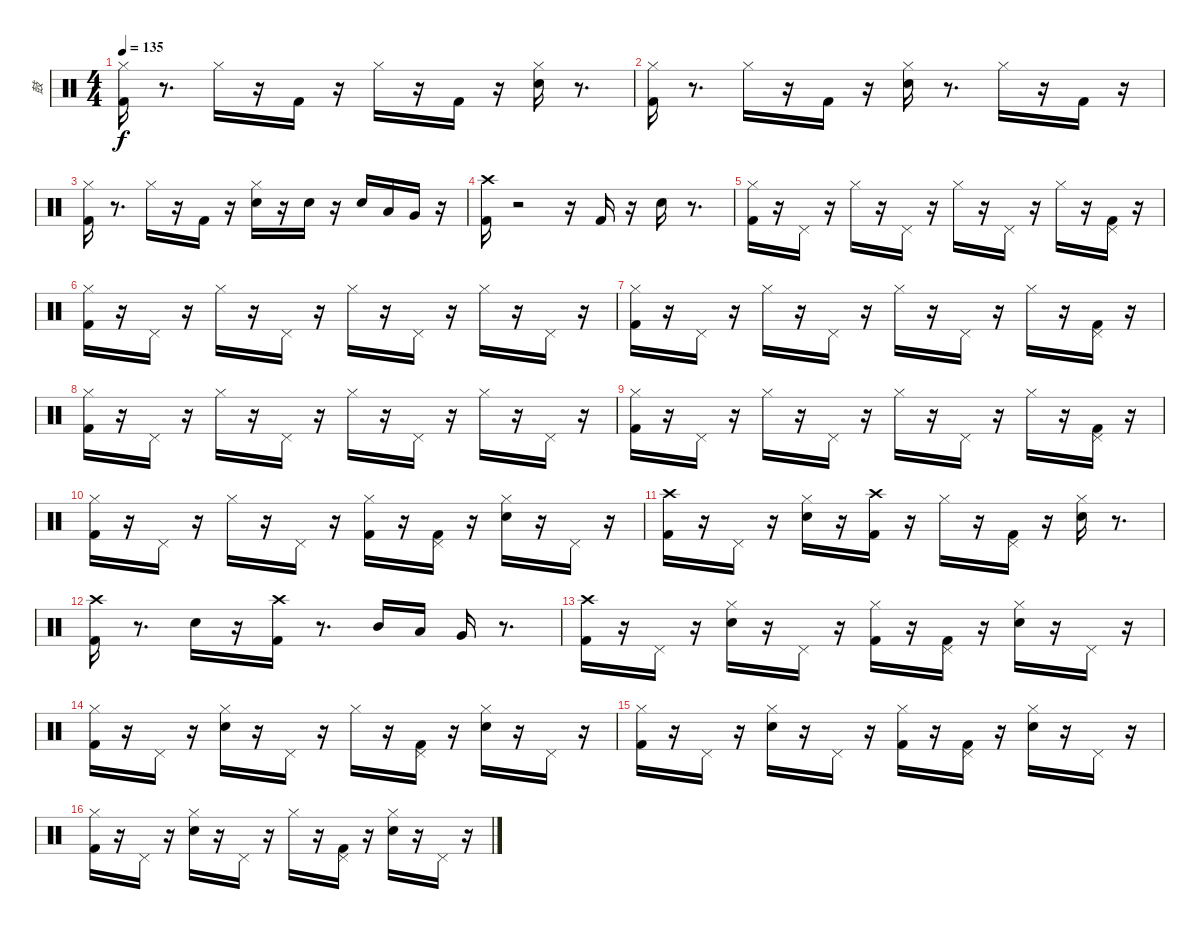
\track ("鼓" "鼓") {instrument percussion}
\staff {score}
\articulation defaults
\ts (4 4)
\tempo 135
\clef neutral
\ks c
("Hi-Hat (closed)" "Kick (hit) 2").16{dy f} r.8{d} "Hi-Hat (closed)".16 r.16 "Kick (hit) 2".16 r.16 "Hi-Hat (closed)".16 r.16 "Kick (hit) 2".16 r.16 ("Hi-Hat (closed)" "Electric Snare (hit)").16 r.8{d} |
("Kick (hit) 2" "Hi-Hat (closed)").16 r.8{d} "Hi-Hat (closed)".16 r.16 "Kick (hit) 2".16 r.16 ("Electric Snare (hit)" "Hi-Hat (closed)").16 r.8{d} "Hi-Hat (closed)".16 r.16 "Kick (hit) 2".16 r.16 |
("Hi-Hat (closed)" "Kick (hit) 2").16 r.8{d} "Hi-Hat (closed)".16 r.16 "Kick (hit) 2".16 r.16 ("Hi-Hat (closed)" "Electric Snare (hit)").16 r.16 "Electric Snare (hit)".16 r.16 "Electric Snare (hit)".16 "Low Tom (hit)".16 "Very Low Tom (hit)".16 r.16 |
("Crash high (hit)" "Kick (hit) 2").16 r.2 r.16 "Kick (hit) 2".16 r.16 "Electric Snare (hit)".16 r.8{d} |
("Kick (hit) 2" "Hi-Hat (closed)").16 r.16 "Pedal Hi-Hat (hit)".16 r.16 "Hi-Hat (closed)".16 r.16 "Pedal Hi-Hat (hit)".16 r.16 "Hi-Hat (closed)".16 r.16 "Pedal Hi-Hat (hit)".16 r.16 "Hi-Hat (closed)".16 r.16 ("Kick (hit) 2" "Pedal Hi-Hat (hit)").16 r.16 |
("Hi-Hat (closed)" "Kick (hit) 2").16 r.16 "Pedal Hi-Hat (hit)".16 r.16 "Hi-Hat (closed)".16 r.16 "Pedal Hi-Hat (hit)".16 r.16 "Hi-Hat (closed)".16 r.16 "Pedal Hi-Hat (hit)".16 r.16 "Hi-Hat (closed)".16 r.16 "Pedal Hi-Hat (hit)".16 r.16 |
("Hi-Hat (closed)" "Kick (hit) 2").16 r.16 "Pedal Hi-Hat (hit)".16 r.16 "Hi-Hat (closed)".16 r.16 "Pedal Hi-Hat (hit)".16 r.16 "Hi-Hat (closed)".16 r.16 "Pedal Hi-Hat (hit)".16 r.16 "Hi-Hat (closed)".16 r.16 ("Kick (hit) 2" "Pedal Hi-Hat (hit)").16 r.16 |
("Kick (hit) 2" "Hi-Hat (closed)").16 r.16 "Pedal Hi-Hat (hit)".16 r.16 "Hi-Hat (closed)".16 r.16 "Pedal Hi-Hat (hit)".16 r.16 "Hi-Hat (closed)".16 r.16 "Pedal Hi-Hat (hit)".16 r.16 "Hi-Hat (closed)".16 r.16 "Pedal Hi-Hat (hit)".16 r.16 |
("Hi-Hat (closed)" "Kick (hit) 2").16 r.16 "Pedal Hi-Hat (hit)".16 r.16 "Hi-Hat (closed)".16 r.16 "Pedal Hi-Hat (hit)".16 r.16 "Hi-Hat (closed)".16 r.16 "Pedal Hi-Hat (hit)".16 r.16 "Hi-Hat (closed)".16 r.16 ("Kick (hit) 2" "Pedal Hi-Hat (hit)").16 r.16 |
("Hi-Hat (closed)" "Kick (hit) 2").16 r.16 "Pedal Hi-Hat (hit)".16 r.16 "Hi-Hat (closed)".16 r.16 "Pedal Hi-Hat (hit)".16 r.16 ("Hi-Hat (closed)" "Kick (hit) 2").16 r.16 ("Pedal Hi-Hat (hit)" "Kick (hit) 2").16 r.16 ("Hi-Hat (closed)" "Electric Snare (hit)").16 r.16 "Pedal Hi-Hat (hit)".16 r.16 |
("Crash high (hit)" "Kick (hit) 2").16 r.16 "Pedal Hi-Hat (hit)".16 r.16 ("Electric Snare (hit)" "Hi-Hat (closed)").16 r.16 ("Crash high (hit)" "Kick (hit) 2").16 r.16 "Hi-Hat (closed)".16 r.16 ("Pedal Hi-Hat (hit)" "Kick (hit) 2").16 r.16 ("Hi-Hat (closed)" "Electric Snare (hit)").16 r.8{d} |
("Crash high (hit)" "Kick (hit) 2").16 r.8{d} "Electric Snare (hit)".16 r.16 ("Crash high (hit)" "Kick (hit) 2").16 r.8{d} "Mid Tom (hit)".16 "Low Tom (hit)".16 "Very Low Tom (hit)".16 r.8{d} |
("Crash high (hit)" "Kick (hit) 2").16 r.16 "Pedal Hi-Hat (hit)".16 r.16 ("Hi-Hat (closed)" "Electric Snare (hit)").16 r.16 "Pedal Hi-Hat (hit)".16 r.16 ("Hi-Hat (closed)" "Kick (hit) 2").16 r.16 ("Pedal Hi-Hat (hit)" "Kick (hit) 2").16 r.16 ("Hi-Hat (closed)" "Electric Snare (hit)").16 r.16 "Pedal Hi-Hat (hit)".16 r.16 |
("Hi-Hat (closed)" "Kick (hit) 2").16 r.16 "Pedal Hi-Hat (hit)".16 r.16 ("Electric Snare (hit)" "Hi-Hat (closed)").16 r.16 "Pedal Hi-Hat (hit)".16 r.16 "Hi-Hat (closed)".16 r.16 ("Pedal Hi-Hat (hit)" "Kick (hit) 2").16 r.16 ("Hi-Hat (closed)" "Electric Snare (hit)").16 r.16 "Pedal Hi-Hat (hit)".16 r.16 |
("Hi-Hat (closed)" "Kick (hit) 2").16 r.16 "Pedal Hi-Hat (hit)".16 r.16 ("Hi-Hat (closed)" "Electric Snare (hit)").16 r.16 "Pedal Hi-Hat (hit)".16 r.16 ("Kick (hit) 2" "Hi-Hat (closed)").16 r.16 ("Kick (hit) 2" "Pedal Hi-Hat (hit)").16 r.16 ("Electric Snare (hit)" "Hi-Hat (closed)").16 r.16 "Pedal Hi-Hat (hit)".16 r.16 |
("Hi-Hat (closed)" "Kick (hit) 2").16 r.16 "Pedal Hi-Hat (hit)".16 r.16 ("Hi-Hat (closed)" "Electric Snare (hit)").16 r.16 "Pedal Hi-Hat (hit)".16 r.16 "Hi-Hat (closed)".16 r.16 ("Pedal Hi-Hat (hit)" "Kick (hit) 2").16 r.16 ("Hi-Hat (closed)" "Electric Snare (hit)").16 r.16 "Pedal Hi-Hat (hit)".16 r.16
